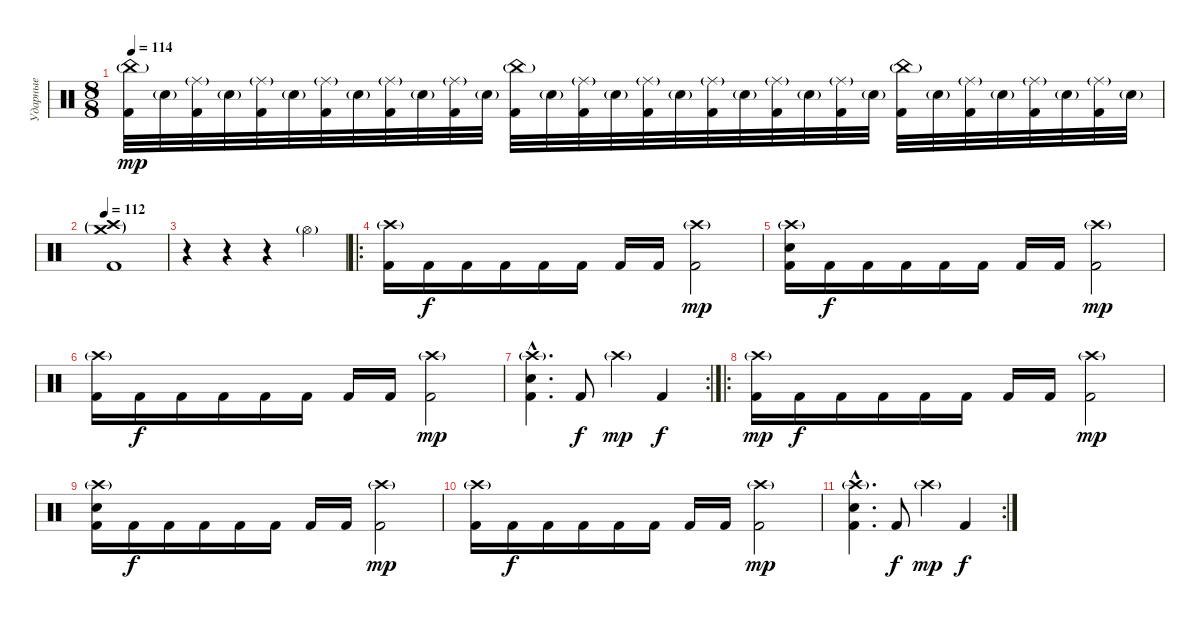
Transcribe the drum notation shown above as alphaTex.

\track ("Ударные" "Ударные") {instrument percussion}
\staff {score}
\articulation defaults
\ts (8 8)
\tempo 114
\clef neutral
\ks c
("China (hit)"{g} "Kick (hit) 2").32{dy mp} "Electric Snare (hit)"{g}.32 ("Ride (middle)"{g} "Kick (hit) 2").32 "Electric Snare (hit)"{g}.32 ("Ride (middle)"{g} "Kick (hit) 2").32 "Electric Snare (hit)"{g}.32 ("Ride (middle)"{g} "Kick (hit) 2").32 "Electric Snare (hit)"{g}.32 ("Ride (middle)"{g} "Kick (hit) 2").32 "Electric Snare (hit)"{g}.32 ("Ride (middle)"{g} "Kick (hit) 2").32 "Electric Snare (hit)"{g}.32 ("China (hit)"{g} "Kick (hit) 2").32 "Electric Snare (hit)"{g}.32 ("Ride (middle)"{g} "Kick (hit) 2").32 "Electric Snare (hit)"{g}.32 ("Ride (middle)"{g} "Kick (hit) 2").32 "Electric Snare (hit)"{g}.32 ("Ride (middle)"{g} "Kick (hit) 2").32 "Electric Snare (hit)"{g}.32 ("Ride (middle)"{g} "Kick (hit) 2").32 "Electric Snare (hit)"{g}.32 ("Ride (middle)"{g} "Kick (hit) 2").32 "Electric Snare (hit)"{g}.32 ("China (hit)"{g} "Kick (hit) 2").32 "Electric Snare (hit)"{g}.32 ("Ride (middle)"{g} "Kick (hit) 2").32 "Electric Snare (hit)"{g}.32 ("Ride (middle)"{g} "Kick (hit) 2").32 "Electric Snare (hit)"{g}.32 ("Ride (middle)"{g} "Kick (hit) 2").32 "Electric Snare (hit)"{g}.32 |
\tempo 112
("Crash high (hit)"{g} "Crash medium (hit)"{g} "Kick (hit) 2").1 |
r.4 r.4 r.4 "Hi-Hat (open)"{g}.4 |
\ro
("Crash high (hit)"{g} "Kick (hit) 2").16 "Kick (hit) 2".16{dy f} "Kick (hit) 2".16 "Kick (hit) 2".16 "Kick (hit) 2".16 "Kick (hit) 2".16 "Kick (hit) 2".16 "Kick (hit) 2".16 ("Crash high (hit)"{g} "Kick (hit) 2").2{dy mp} |
("Crash high (hit)"{g} "Electric Snare (hit)" "Kick (hit) 2").16 "Kick (hit) 2".16{dy f} "Kick (hit) 2".16 "Kick (hit) 2".16 "Kick (hit) 2".16 "Kick (hit) 2".16 "Kick (hit) 2".16 "Kick (hit) 2".16 ("Crash high (hit)"{g} "Kick (hit) 2").2{dy mp} |
("Crash high (hit)"{g} "Kick (hit) 2").16 "Kick (hit) 2".16{dy f} "Kick (hit) 2".16 "Kick (hit) 2".16 "Kick (hit) 2".16 "Kick (hit) 2".16 "Kick (hit) 2".16 "Kick (hit) 2".16 ("Crash high (hit)"{g} "Kick (hit) 2").2{dy mp} |
\rc 2
("Crash high (hit)"{g hac} "Electric Snare (hit)"{hac} "Kick (hit) 2"{hac}).4{d} "Kick (hit) 2".8{dy f} "Crash high (hit)"{g}.4{dy mp} "Kick (hit) 2".4{dy f} |
\ro
("Crash high (hit)"{g} "Kick (hit) 2").16{dy mp} "Kick (hit) 2".16{dy f} "Kick (hit) 2".16 "Kick (hit) 2".16 "Kick (hit) 2".16 "Kick (hit) 2".16 "Kick (hit) 2".16 "Kick (hit) 2".16 ("Crash high (hit)"{g} "Kick (hit) 2").2{dy mp} |
("Crash high (hit)"{g} "Electric Snare (hit)" "Kick (hit) 2").16 "Kick (hit) 2".16{dy f} "Kick (hit) 2".16 "Kick (hit) 2".16 "Kick (hit) 2".16 "Kick (hit) 2".16 "Kick (hit) 2".16 "Kick (hit) 2".16 ("Crash high (hit)"{g} "Kick (hit) 2").2{dy mp} |
("Crash high (hit)"{g} "Kick (hit) 2").16 "Kick (hit) 2".16{dy f} "Kick (hit) 2".16 "Kick (hit) 2".16 "Kick (hit) 2".16 "Kick (hit) 2".16 "Kick (hit) 2".16 "Kick (hit) 2".16 ("Crash high (hit)"{g} "Kick (hit) 2").2{dy mp} |
\rc 2
("Crash high (hit)"{g hac} "Electric Snare (hit)"{hac} "Kick (hit) 2"{hac}).4{d} "Kick (hit) 2".8{dy f} "Crash high (hit)"{g}.4{dy mp} "Kick (hit) 2".4{dy f}
